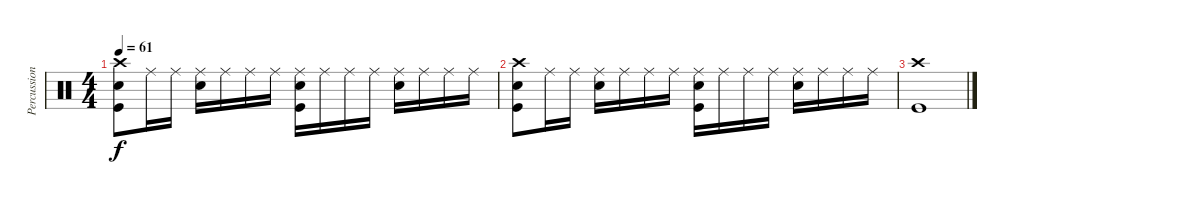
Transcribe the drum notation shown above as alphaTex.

\track ("Percussion" "Percussion") {instrument percussion}
\staff {score}
\articulation defaults
\ts (4 4)
\tempo 61
\clef neutral
\ks c
("Kick (hit)" "Snare (hit) 2" "Crash high (hit)").8{dy f} "Ride (middle)".16 "Ride (middle)".16 ("Snare (hit) 2" "Ride (middle)").16 "Ride (middle)".16 "Ride (middle)".16 "Ride (middle)".16 ("Kick (hit)" "Snare (hit) 2" "Ride (middle)").16 "Ride (middle)".16 "Ride (middle)".16 "Ride (middle)".16 ("Snare (hit) 2" "Ride (middle)").16 "Ride (middle)".16 "Ride (middle)".16 "Ride (middle)".16 |
("Kick (hit)" "Snare (hit) 2" "Crash high (hit)").8 "Ride (middle)".16 "Ride (middle)".16 ("Snare (hit) 2" "Ride (middle)").16 "Ride (middle)".16 "Ride (middle)".16 "Ride (middle)".16 ("Kick (hit)" "Snare (hit) 2" "Ride (middle)").16 "Ride (middle)".16 "Ride (middle)".16 "Ride (middle)".16 ("Snare (hit) 2" "Ride (middle)").16 "Ride (middle)".16 "Ride (middle)".16 "Ride (middle)".16 |
("Kick (hit)" "Crash high (hit)").1
